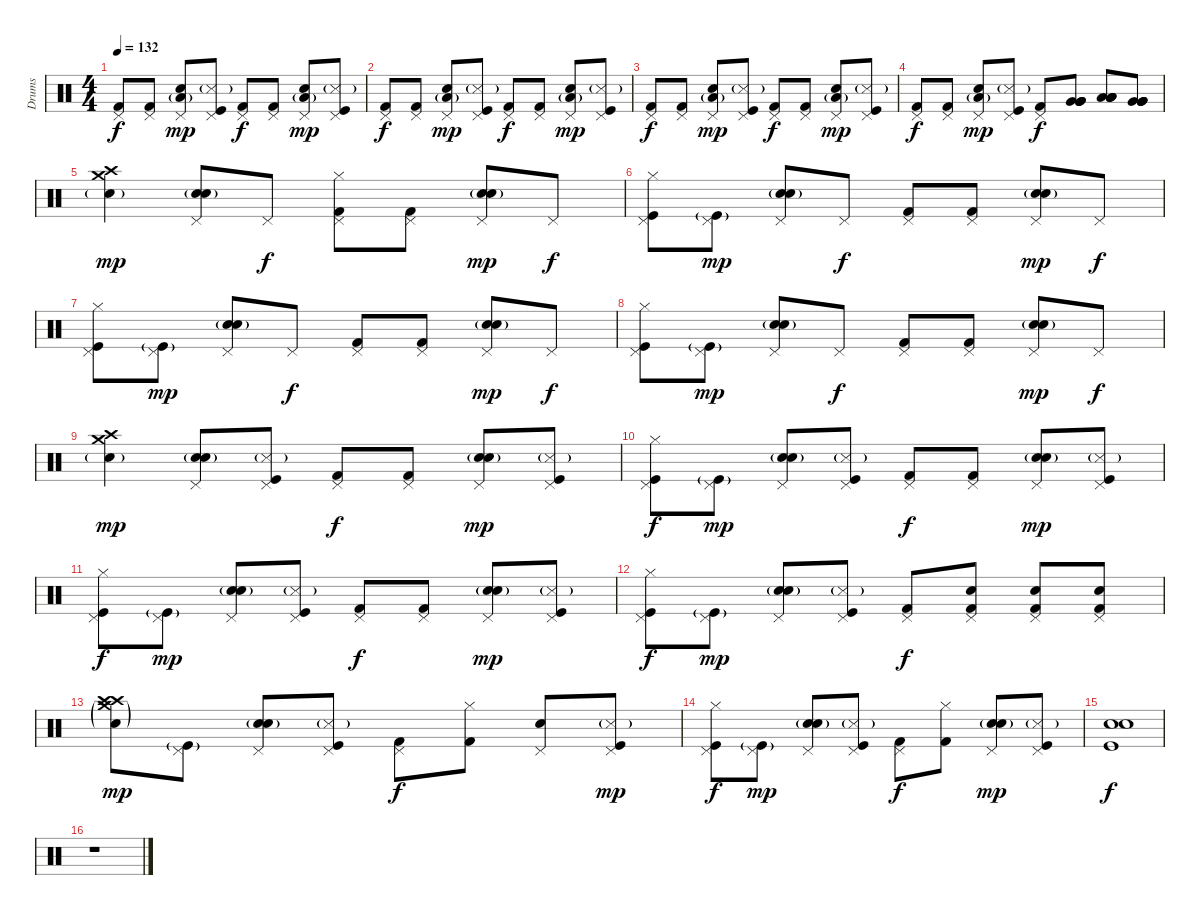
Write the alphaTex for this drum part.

\track ("Drums" "Drums") {instrument percussion}
\staff {score}
\articulation defaults
\ts (4 4)
\tempo 132
\clef neutral
\ks c
("Pedal Hi-Hat (hit)" "Kick (hit) 2").8{dy f} ("Pedal Hi-Hat (hit)" "Kick (hit) 2").8 ("Pedal Hi-Hat (hit)" "Electric Snare (hit)" "Low Tom (hit)"{g}).8{dy mp} ("Pedal Hi-Hat (hit)" "Kick (hit)" "Snare (side stick) 3"{g}).8 ("Pedal Hi-Hat (hit)" "Kick (hit) 2").8{dy f} ("Pedal Hi-Hat (hit)" "Kick (hit) 2").8 ("Pedal Hi-Hat (hit)" "Electric Snare (hit)" "Low Tom (hit)"{g}).8{dy mp} ("Pedal Hi-Hat (hit)" "Kick (hit)" "Snare (side stick) 3"{g}).8 |
("Pedal Hi-Hat (hit)" "Kick (hit) 2").8{dy f} ("Pedal Hi-Hat (hit)" "Kick (hit) 2").8 ("Pedal Hi-Hat (hit)" "Electric Snare (hit)" "Low Tom (hit)"{g}).8{dy mp} ("Pedal Hi-Hat (hit)" "Kick (hit)" "Snare (side stick) 3"{g}).8 ("Pedal Hi-Hat (hit)" "Kick (hit) 2").8{dy f} ("Pedal Hi-Hat (hit)" "Kick (hit) 2").8 ("Pedal Hi-Hat (hit)" "Electric Snare (hit)" "Low Tom (hit)"{g}).8{dy mp} ("Pedal Hi-Hat (hit)" "Kick (hit)" "Snare (side stick) 3"{g}).8 |
("Pedal Hi-Hat (hit)" "Kick (hit) 2").8{dy f} ("Pedal Hi-Hat (hit)" "Kick (hit) 2").8 ("Pedal Hi-Hat (hit)" "Electric Snare (hit)" "Low Tom (hit)"{g}).8{dy mp} ("Pedal Hi-Hat (hit)" "Kick (hit)" "Snare (side stick) 3"{g}).8 ("Pedal Hi-Hat (hit)" "Kick (hit) 2").8{dy f} ("Pedal Hi-Hat (hit)" "Kick (hit) 2").8 ("Pedal Hi-Hat (hit)" "Electric Snare (hit)" "Low Tom (hit)"{g}).8{dy mp} ("Pedal Hi-Hat (hit)" "Kick (hit)" "Snare (side stick) 3"{g}).8 |
("Pedal Hi-Hat (hit)" "Kick (hit) 2").8{dy f} ("Pedal Hi-Hat (hit)" "Kick (hit) 2").8 ("Pedal Hi-Hat (hit)" "Electric Snare (hit)" "Low Tom (hit)"{g}).8{dy mp} ("Pedal Hi-Hat (hit)" "Kick (hit)" "Snare (side stick) 3"{g}).8 ("Pedal Hi-Hat (hit)" "Kick (hit) 2").8{dy f} ("Very Low Tom (hit)" "Very Low Tom (hit)" "Very Low Tom (hit)" "Very Low Tom (hit)").8 ("Low Tom (hit)" "Low Tom (hit)" "Low Tom (hit)" "Low Tom (hit)").8 ("Very Low Tom (hit)" "Very Low Tom (hit)" "Very Low Tom (hit)" "Very Low Tom (hit)").8 |
("Crash medium (hit)" "Crash high (hit)" "Electric Snare (hit)"{g}).4{dy mp} ("Pedal Hi-Hat (hit)" "Electric Snare (hit)" "Snare (hit) 2"{g}).8 "Pedal Hi-Hat (hit)".8{dy f} ("Pedal Hi-Hat (hit)" "Hi-Hat (closed)" "Kick (hit) 2").8 ("Pedal Hi-Hat (hit)" "Kick (hit) 2").8 ("Pedal Hi-Hat (hit)" "Electric Snare (hit)" "Snare (hit) 2"{g}).8{dy mp} "Pedal Hi-Hat (hit)".8{dy f} |
("Pedal Hi-Hat (hit)" "Hi-Hat (closed)" "Kick (hit)").8 ("Pedal Hi-Hat (hit)" "Kick (hit)"{g}).8{dy mp} ("Pedal Hi-Hat (hit)" "Electric Snare (hit)" "Snare (hit) 2"{g}).8 "Pedal Hi-Hat (hit)".8{dy f} ("Pedal Hi-Hat (hit)" "Kick (hit) 2").8 ("Pedal Hi-Hat (hit)" "Kick (hit) 2").8 ("Pedal Hi-Hat (hit)" "Electric Snare (hit)" "Snare (hit) 2"{g}).8{dy mp} "Pedal Hi-Hat (hit)".8{dy f} |
("Pedal Hi-Hat (hit)" "Hi-Hat (closed)" "Kick (hit)").8 ("Pedal Hi-Hat (hit)" "Kick (hit)"{g}).8{dy mp} ("Pedal Hi-Hat (hit)" "Electric Snare (hit)" "Snare (hit) 2"{g}).8 "Pedal Hi-Hat (hit)".8{dy f} ("Pedal Hi-Hat (hit)" "Kick (hit) 2").8 ("Pedal Hi-Hat (hit)" "Kick (hit) 2").8 ("Pedal Hi-Hat (hit)" "Electric Snare (hit)" "Snare (hit) 2"{g}).8{dy mp} "Pedal Hi-Hat (hit)".8{dy f} |
("Pedal Hi-Hat (hit)" "Hi-Hat (closed)" "Kick (hit)").8 ("Pedal Hi-Hat (hit)" "Kick (hit)"{g}).8{dy mp} ("Pedal Hi-Hat (hit)" "Electric Snare (hit)" "Snare (hit) 2"{g}).8 "Pedal Hi-Hat (hit)".8{dy f} ("Pedal Hi-Hat (hit)" "Kick (hit) 2").8 ("Pedal Hi-Hat (hit)" "Kick (hit) 2").8 ("Pedal Hi-Hat (hit)" "Electric Snare (hit)" "Snare (hit) 2"{g}).8{dy mp} "Pedal Hi-Hat (hit)".8{dy f} |
("Crash medium (hit)" "Crash high (hit)" "Electric Snare (hit)"{g}).4{dy mp} ("Pedal Hi-Hat (hit)" "Electric Snare (hit)" "Snare (hit) 2"{g}).8 ("Pedal Hi-Hat (hit)" "Kick (hit)" "Snare (side stick) 3"{g}).8 ("Pedal Hi-Hat (hit)" "Kick (hit) 2").8{dy f} ("Pedal Hi-Hat (hit)" "Kick (hit) 2").8 ("Pedal Hi-Hat (hit)" "Electric Snare (hit)" "Snare (hit) 2"{g}).8{dy mp} ("Pedal Hi-Hat (hit)" "Kick (hit)" "Snare (side stick) 3"{g}).8 |
("Pedal Hi-Hat (hit)" "Hi-Hat (closed)" "Kick (hit)").8{dy f} ("Pedal Hi-Hat (hit)" "Kick (hit)"{g}).8{dy mp} ("Pedal Hi-Hat (hit)" "Electric Snare (hit)" "Snare (hit) 2"{g}).8 ("Pedal Hi-Hat (hit)" "Kick (hit)" "Snare (side stick) 3"{g}).8 ("Pedal Hi-Hat (hit)" "Kick (hit) 2").8{dy f} ("Pedal Hi-Hat (hit)" "Kick (hit) 2").8 ("Pedal Hi-Hat (hit)" "Electric Snare (hit)" "Snare (hit) 2"{g}).8{dy mp} ("Pedal Hi-Hat (hit)" "Kick (hit)" "Snare (side stick) 3"{g}).8 |
("Pedal Hi-Hat (hit)" "Hi-Hat (closed)" "Kick (hit)").8{dy f} ("Pedal Hi-Hat (hit)" "Kick (hit)"{g}).8{dy mp} ("Pedal Hi-Hat (hit)" "Electric Snare (hit)" "Snare (hit) 2"{g}).8 ("Pedal Hi-Hat (hit)" "Kick (hit)" "Snare (side stick) 3"{g}).8 ("Pedal Hi-Hat (hit)" "Kick (hit) 2").8{dy f} ("Pedal Hi-Hat (hit)" "Kick (hit) 2").8 ("Pedal Hi-Hat (hit)" "Electric Snare (hit)" "Snare (hit) 2"{g}).8{dy mp} ("Pedal Hi-Hat (hit)" "Kick (hit)" "Snare (side stick) 3"{g}).8 |
("Pedal Hi-Hat (hit)" "Hi-Hat (closed)" "Kick (hit)").8{dy f} ("Pedal Hi-Hat (hit)" "Kick (hit)"{g}).8{dy mp} ("Pedal Hi-Hat (hit)" "Electric Snare (hit)" "Snare (hit) 2"{g}).8 ("Pedal Hi-Hat (hit)" "Kick (hit)" "Snare (side stick) 3"{g}).8 ("Pedal Hi-Hat (hit)" "Kick (hit) 2").8{dy f} ("Pedal Hi-Hat (hit)" "Electric Snare (hit)" "Kick (hit) 2").8 ("Pedal Hi-Hat (hit)" "Electric Snare (hit)" "Kick (hit) 2").8 ("Pedal Hi-Hat (hit)" "Electric Snare (hit)" "Kick (hit) 2").8 |
("Crash high (hit)" "Crash high (hit)" "Crash medium (hit)"{g} "Electric Snare (hit)"{g}).8{dy mp} ("Pedal Hi-Hat (hit)" "Kick (hit)"{g}).8 ("Pedal Hi-Hat (hit)" "Electric Snare (hit)" "Snare (hit) 2"{g}).8 ("Pedal Hi-Hat (hit)" "Kick (hit)" "Snare (side stick) 3"{g}).8 ("Pedal Hi-Hat (hit)" "Kick (hit) 2").8{dy f} ("Hi-Hat (closed)" "Kick (hit) 2").8 ("Pedal Hi-Hat (hit)" "Electric Snare (hit)").8 ("Pedal Hi-Hat (hit)" "Kick (hit)" "Snare (side stick) 3"{g}).8{dy mp} |
("Pedal Hi-Hat (hit)" "Hi-Hat (closed)" "Kick (hit)").8{dy f} ("Pedal Hi-Hat (hit)" "Kick (hit)"{g}).8{dy mp} ("Pedal Hi-Hat (hit)" "Electric Snare (hit)" "Snare (hit) 2"{g}).8 ("Pedal Hi-Hat (hit)" "Kick (hit)" "Snare (side stick) 3"{g}).8 ("Pedal Hi-Hat (hit)" "Kick (hit) 2").8{dy f} ("Hi-Hat (closed)" "Kick (hit) 2").8 ("Pedal Hi-Hat (hit)" "Electric Snare (hit)" "Snare (hit) 2"{g}).8{dy mp} ("Pedal Hi-Hat (hit)" "Kick (hit)" "Snare (side stick) 3"{g}).8 |
("Electric Snare (hit)" "Electric Snare (hit)" "Kick (hit)").1{dy f} |
r.1
